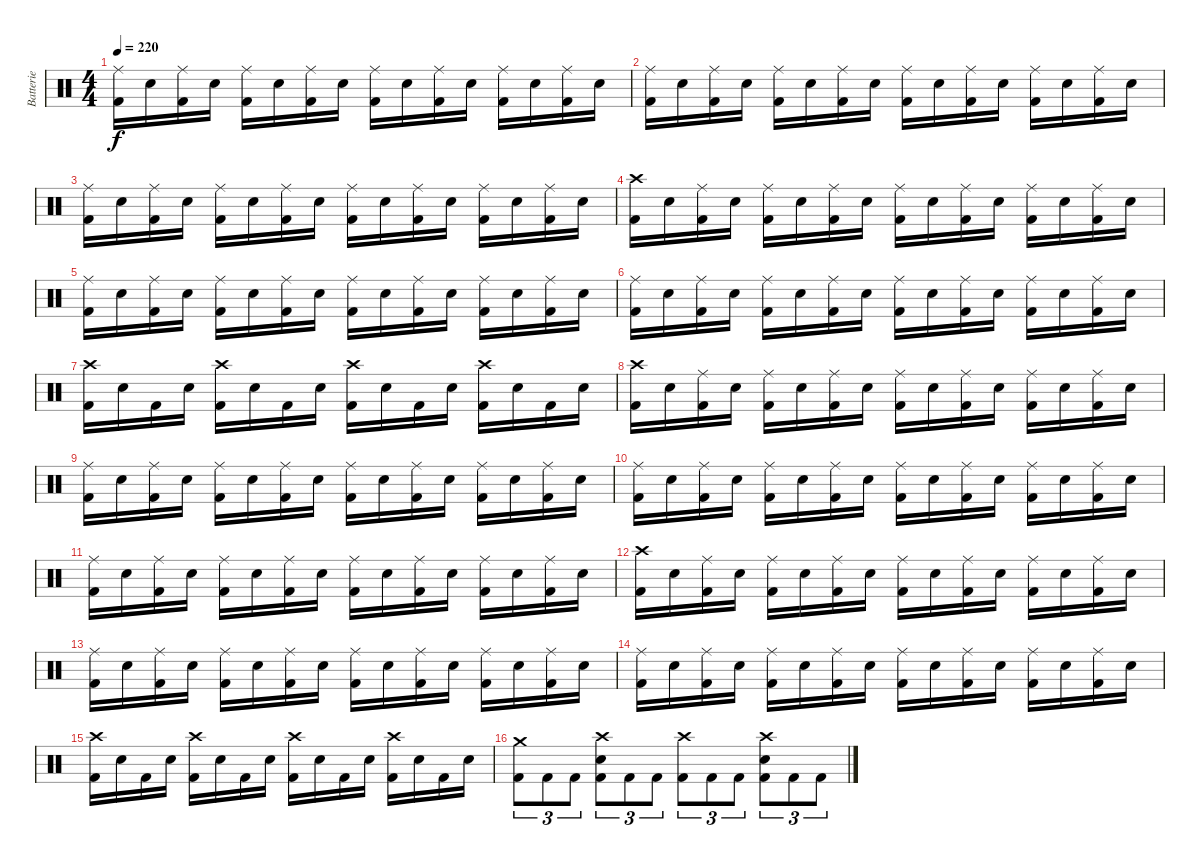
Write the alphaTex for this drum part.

\track ("Batterie" "Batterie") {instrument percussion}
\staff {score}
\articulation defaults
\ts (4 4)
\tempo 220
\clef neutral
\ks c
("Ride (middle)" "Kick (hit) 2").16{dy f} "Electric Snare (hit)".16 ("Ride (middle)" "Kick (hit) 2").16 "Electric Snare (hit)".16 ("Ride (middle)" "Kick (hit) 2").16 "Electric Snare (hit)".16 ("Ride (middle)" "Kick (hit) 2").16 "Electric Snare (hit)".16 ("Ride (middle)" "Kick (hit) 2").16 "Electric Snare (hit)".16 ("Ride (middle)" "Kick (hit) 2").16 "Electric Snare (hit)".16 ("Ride (middle)" "Kick (hit) 2").16 "Electric Snare (hit)".16 ("Ride (middle)" "Kick (hit) 2").16 "Electric Snare (hit)".16 |
("Ride (middle)" "Kick (hit) 2").16 "Electric Snare (hit)".16 ("Ride (middle)" "Kick (hit) 2").16 "Electric Snare (hit)".16 ("Ride (middle)" "Kick (hit) 2").16 "Electric Snare (hit)".16 ("Ride (middle)" "Kick (hit) 2").16 "Electric Snare (hit)".16 ("Ride (middle)" "Kick (hit) 2").16 "Electric Snare (hit)".16 ("Ride (middle)" "Kick (hit) 2").16 "Electric Snare (hit)".16 ("Ride (middle)" "Kick (hit) 2").16 "Electric Snare (hit)".16 ("Ride (middle)" "Kick (hit) 2").16 "Electric Snare (hit)".16 |
("Ride (middle)" "Kick (hit) 2").16 "Electric Snare (hit)".16 ("Ride (middle)" "Kick (hit) 2").16 "Electric Snare (hit)".16 ("Ride (middle)" "Kick (hit) 2").16 "Electric Snare (hit)".16 ("Ride (middle)" "Kick (hit) 2").16 "Electric Snare (hit)".16 ("Ride (middle)" "Kick (hit) 2").16 "Electric Snare (hit)".16 ("Ride (middle)" "Kick (hit) 2").16 "Electric Snare (hit)".16 ("Ride (middle)" "Kick (hit) 2").16 "Electric Snare (hit)".16 ("Ride (middle)" "Kick (hit) 2").16 "Electric Snare (hit)".16 |
("Crash high (hit)" "Kick (hit) 2").16 "Electric Snare (hit)".16 ("Ride (middle)" "Kick (hit) 2").16 "Electric Snare (hit)".16 ("Ride (middle)" "Kick (hit) 2").16 "Electric Snare (hit)".16 ("Ride (middle)" "Kick (hit) 2").16 "Electric Snare (hit)".16 ("Ride (middle)" "Kick (hit) 2").16 "Electric Snare (hit)".16 ("Ride (middle)" "Kick (hit) 2").16 "Electric Snare (hit)".16 ("Ride (middle)" "Kick (hit) 2").16 "Electric Snare (hit)".16 ("Ride (middle)" "Kick (hit) 2").16 "Electric Snare (hit)".16 |
("Ride (middle)" "Kick (hit) 2").16 "Electric Snare (hit)".16 ("Ride (middle)" "Kick (hit) 2").16 "Electric Snare (hit)".16 ("Ride (middle)" "Kick (hit) 2").16 "Electric Snare (hit)".16 ("Ride (middle)" "Kick (hit) 2").16 "Electric Snare (hit)".16 ("Ride (middle)" "Kick (hit) 2").16 "Electric Snare (hit)".16 ("Ride (middle)" "Kick (hit) 2").16 "Electric Snare (hit)".16 ("Ride (middle)" "Kick (hit) 2").16 "Electric Snare (hit)".16 ("Ride (middle)" "Kick (hit) 2").16 "Electric Snare (hit)".16 |
("Ride (middle)" "Kick (hit) 2").16 "Electric Snare (hit)".16 ("Ride (middle)" "Kick (hit) 2").16 "Electric Snare (hit)".16 ("Ride (middle)" "Kick (hit) 2").16 "Electric Snare (hit)".16 ("Ride (middle)" "Kick (hit) 2").16 "Electric Snare (hit)".16 ("Ride (middle)" "Kick (hit) 2").16 "Electric Snare (hit)".16 ("Ride (middle)" "Kick (hit) 2").16 "Electric Snare (hit)".16 ("Ride (middle)" "Kick (hit) 2").16 "Electric Snare (hit)".16 ("Ride (middle)" "Kick (hit) 2").16 "Electric Snare (hit)".16 |
("Crash high (hit)" "Kick (hit) 2").16 "Electric Snare (hit)".16 "Kick (hit) 2".16 "Electric Snare (hit)".16 ("Crash high (hit)" "Kick (hit) 2").16 "Electric Snare (hit)".16 "Kick (hit) 2".16 "Electric Snare (hit)".16 ("Crash high (hit)" "Kick (hit) 2").16 "Electric Snare (hit)".16 "Kick (hit) 2".16 "Electric Snare (hit)".16 ("Crash high (hit)" "Kick (hit) 2").16 "Electric Snare (hit)".16 "Kick (hit) 2".16 "Electric Snare (hit)".16 |
("Crash high (hit)" "Kick (hit) 2").16 "Electric Snare (hit)".16 ("Ride (middle)" "Kick (hit) 2").16 "Electric Snare (hit)".16 ("Ride (middle)" "Kick (hit) 2").16 "Electric Snare (hit)".16 ("Ride (middle)" "Kick (hit) 2").16 "Electric Snare (hit)".16 ("Ride (middle)" "Kick (hit) 2").16 "Electric Snare (hit)".16 ("Ride (middle)" "Kick (hit) 2").16 "Electric Snare (hit)".16 ("Ride (middle)" "Kick (hit) 2").16 "Electric Snare (hit)".16 ("Ride (middle)" "Kick (hit) 2").16 "Electric Snare (hit)".16 |
("Ride (middle)" "Kick (hit) 2").16 "Electric Snare (hit)".16 ("Ride (middle)" "Kick (hit) 2").16 "Electric Snare (hit)".16 ("Ride (middle)" "Kick (hit) 2").16 "Electric Snare (hit)".16 ("Ride (middle)" "Kick (hit) 2").16 "Electric Snare (hit)".16 ("Ride (middle)" "Kick (hit) 2").16 "Electric Snare (hit)".16 ("Ride (middle)" "Kick (hit) 2").16 "Electric Snare (hit)".16 ("Ride (middle)" "Kick (hit) 2").16 "Electric Snare (hit)".16 ("Ride (middle)" "Kick (hit) 2").16 "Electric Snare (hit)".16 |
("Ride (middle)" "Kick (hit) 2").16 "Electric Snare (hit)".16 ("Ride (middle)" "Kick (hit) 2").16 "Electric Snare (hit)".16 ("Ride (middle)" "Kick (hit) 2").16 "Electric Snare (hit)".16 ("Ride (middle)" "Kick (hit) 2").16 "Electric Snare (hit)".16 ("Ride (middle)" "Kick (hit) 2").16 "Electric Snare (hit)".16 ("Ride (middle)" "Kick (hit) 2").16 "Electric Snare (hit)".16 ("Ride (middle)" "Kick (hit) 2").16 "Electric Snare (hit)".16 ("Ride (middle)" "Kick (hit) 2").16 "Electric Snare (hit)".16 |
("Ride (middle)" "Kick (hit) 2").16 "Electric Snare (hit)".16 ("Ride (middle)" "Kick (hit) 2").16 "Electric Snare (hit)".16 ("Ride (middle)" "Kick (hit) 2").16 "Electric Snare (hit)".16 ("Ride (middle)" "Kick (hit) 2").16 "Electric Snare (hit)".16 ("Ride (middle)" "Kick (hit) 2").16 "Electric Snare (hit)".16 ("Ride (middle)" "Kick (hit) 2").16 "Electric Snare (hit)".16 ("Ride (middle)" "Kick (hit) 2").16 "Electric Snare (hit)".16 ("Ride (middle)" "Kick (hit) 2").16 "Electric Snare (hit)".16 |
("Crash high (hit)" "Kick (hit) 2").16 "Electric Snare (hit)".16 ("Ride (middle)" "Kick (hit) 2").16 "Electric Snare (hit)".16 ("Ride (middle)" "Kick (hit) 2").16 "Electric Snare (hit)".16 ("Ride (middle)" "Kick (hit) 2").16 "Electric Snare (hit)".16 ("Ride (middle)" "Kick (hit) 2").16 "Electric Snare (hit)".16 ("Ride (middle)" "Kick (hit) 2").16 "Electric Snare (hit)".16 ("Ride (middle)" "Kick (hit) 2").16 "Electric Snare (hit)".16 ("Ride (middle)" "Kick (hit) 2").16 "Electric Snare (hit)".16 |
("Ride (middle)" "Kick (hit) 2").16 "Electric Snare (hit)".16 ("Ride (middle)" "Kick (hit) 2").16 "Electric Snare (hit)".16 ("Ride (middle)" "Kick (hit) 2").16 "Electric Snare (hit)".16 ("Ride (middle)" "Kick (hit) 2").16 "Electric Snare (hit)".16 ("Ride (middle)" "Kick (hit) 2").16 "Electric Snare (hit)".16 ("Ride (middle)" "Kick (hit) 2").16 "Electric Snare (hit)".16 ("Ride (middle)" "Kick (hit) 2").16 "Electric Snare (hit)".16 ("Ride (middle)" "Kick (hit) 2").16 "Electric Snare (hit)".16 |
("Ride (middle)" "Kick (hit) 2").16 "Electric Snare (hit)".16 ("Ride (middle)" "Kick (hit) 2").16 "Electric Snare (hit)".16 ("Ride (middle)" "Kick (hit) 2").16 "Electric Snare (hit)".16 ("Ride (middle)" "Kick (hit) 2").16 "Electric Snare (hit)".16 ("Ride (middle)" "Kick (hit) 2").16 "Electric Snare (hit)".16 ("Ride (middle)" "Kick (hit) 2").16 "Electric Snare (hit)".16 ("Ride (middle)" "Kick (hit) 2").16 "Electric Snare (hit)".16 ("Ride (middle)" "Kick (hit) 2").16 "Electric Snare (hit)".16 |
("Crash high (hit)" "Kick (hit) 2").16 "Electric Snare (hit)".16 "Kick (hit) 2".16 "Electric Snare (hit)".16 ("Crash high (hit)" "Kick (hit) 2").16 "Electric Snare (hit)".16 "Kick (hit) 2".16 "Electric Snare (hit)".16 ("Crash high (hit)" "Kick (hit) 2").16 "Electric Snare (hit)".16 "Kick (hit) 2".16 "Electric Snare (hit)".16 ("Crash high (hit)" "Kick (hit) 2").16 "Electric Snare (hit)".16 "Kick (hit) 2".16 "Electric Snare (hit)".16 |
("Crash medium (hit)" "Kick (hit) 2").8{tu (3 2)} "Kick (hit) 2".8{tu (3 2)} "Kick (hit) 2".8{tu (3 2)} ("Crash high (hit)" "Electric Snare (hit)" "Kick (hit) 2").8{tu (3 2)} "Kick (hit) 2".8{tu (3 2)} "Kick (hit) 2".8{tu (3 2)} ("Crash high (hit)" "Kick (hit) 2").8{tu (3 2)} "Kick (hit) 2".8{tu (3 2)} "Kick (hit) 2".8{tu (3 2)} ("Crash high (hit)" "Electric Snare (hit)" "Kick (hit) 2").8{tu (3 2)} "Kick (hit) 2".8{tu (3 2)} "Kick (hit) 2".8{tu (3 2)}
